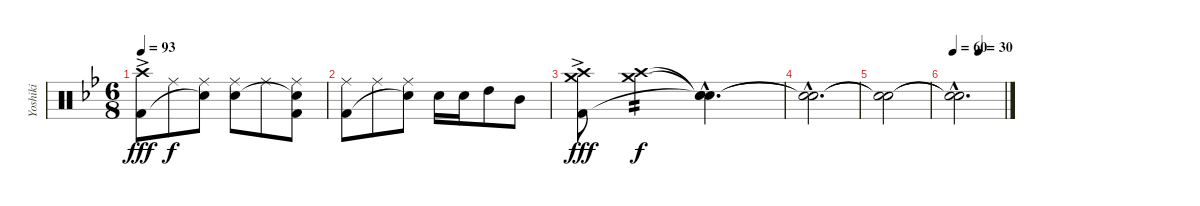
\track ("Yoshiki" "Yoshiki") {instrument percussion}
\staff {score}
\articulation defaults
\ts (6 8)
\tempo 93
\clef neutral
\ks bb
("Crash high (hit)"{ac} "Kick (hit) 2"{ac}).8{dy fff} "Ride (middle)".8{dy f} ("Ride (middle)" "Snare (hit)"{t}).8 ("Ride (middle)" "Snare (hit) 2").8 "Ride (middle)".8 ("Ride (middle)" "Snare (hit)"{t} "Kick (hit) 2").8 |
("Ride (middle)" "Kick (hit) 2").8 "Ride (middle)".8 ("Ride (middle)" "Snare (hit)"{t}).8 "Snare (hit) 2".16 "Snare (hit) 2".16 "High Tom (hit)".8 "Mid Tom (hit)".8 |
("Crash high (hit)" "Crash medium (hit)" "Kick (hit) 2"{ac}).8{dy fff} ("Crash high (hit)" "Crash medium (hit)").4{tp 2 dy f volume 4} ("Snare (hit)"{hac t} "Snare (hit)"{hac t} "Snare (hit)"{hac t}).4{d} |
("Snare (hit)"{hac t} "Snare (hit)"{hac t}).2{d} |
("Snare (hit)"{t} "Snare (hit)"{t}).2 |
\tempo (30 0.5)
\tempo 60
("Snare (hit)"{hac t} "Snare (hit)"{hac t}).2{d}
